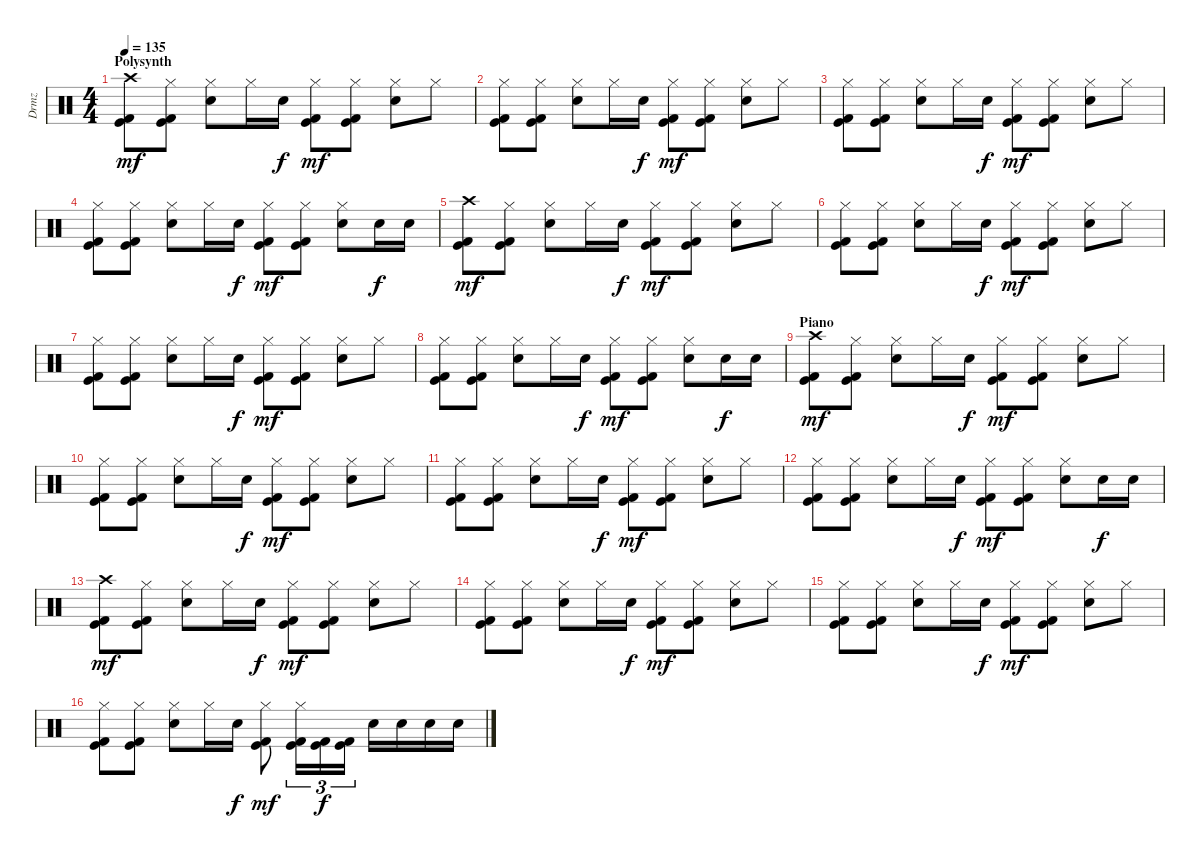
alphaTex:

\track ("Drmz" "Drmz") {instrument percussion}
\staff {score}
\articulation defaults
\ts (4 4)
\section ("" "Polysynth")
\tempo 135
\clef neutral
\ks c
("Kick (hit) 2" "Kick (hit)" "Crash high (hit)").8{dy mf} ("Kick (hit) 2" "Kick (hit)" "Hi-Hat (closed)").8 ("Snare (hit) 2" "Hi-Hat (closed)").8 "Hi-Hat (closed)".16 "Snare (hit) 2".16{dy f} ("Kick (hit)" "Kick (hit) 2" "Hi-Hat (closed)").8{dy mf} ("Kick (hit) 2" "Kick (hit)" "Hi-Hat (closed)").8 ("Snare (hit) 2" "Hi-Hat (closed)").8 "Hi-Hat (closed)".8 |
("Kick (hit) 2" "Kick (hit)" "Hi-Hat (closed)").8 ("Kick (hit) 2" "Kick (hit)" "Hi-Hat (closed)").8 ("Snare (hit) 2" "Hi-Hat (closed)").8 "Hi-Hat (closed)".16 "Snare (hit) 2".16{dy f} ("Kick (hit)" "Kick (hit) 2" "Hi-Hat (closed)").8{dy mf} ("Kick (hit) 2" "Kick (hit)" "Hi-Hat (closed)").8 ("Snare (hit) 2" "Hi-Hat (closed)").8 "Hi-Hat (closed)".8 |
("Kick (hit) 2" "Kick (hit)" "Hi-Hat (closed)").8 ("Kick (hit) 2" "Kick (hit)" "Hi-Hat (closed)").8 ("Snare (hit) 2" "Hi-Hat (closed)").8 "Hi-Hat (closed)".16 "Snare (hit) 2".16{dy f} ("Kick (hit)" "Kick (hit) 2" "Hi-Hat (closed)").8{dy mf} ("Kick (hit) 2" "Kick (hit)" "Hi-Hat (closed)").8 ("Snare (hit) 2" "Hi-Hat (closed)").8 "Hi-Hat (closed)".8 |
("Kick (hit) 2" "Kick (hit)" "Hi-Hat (closed)").8 ("Kick (hit) 2" "Kick (hit)" "Hi-Hat (closed)").8 ("Snare (hit) 2" "Hi-Hat (closed)").8 "Hi-Hat (closed)".16 "Snare (hit) 2".16{dy f} ("Kick (hit)" "Kick (hit) 2" "Hi-Hat (closed)").8{dy mf} ("Kick (hit) 2" "Kick (hit)" "Hi-Hat (closed)").8 ("Snare (hit) 2" "Hi-Hat (closed)").8 "Snare (hit) 2".16{dy f} "Snare (hit) 2".16 |
("Kick (hit) 2" "Kick (hit)" "Crash high (hit)").8{dy mf} ("Kick (hit) 2" "Kick (hit)" "Hi-Hat (closed)").8 ("Snare (hit) 2" "Hi-Hat (closed)").8 "Hi-Hat (closed)".16 "Snare (hit) 2".16{dy f} ("Kick (hit)" "Kick (hit) 2" "Hi-Hat (closed)").8{dy mf} ("Kick (hit) 2" "Kick (hit)" "Hi-Hat (closed)").8 ("Snare (hit) 2" "Hi-Hat (closed)").8 "Hi-Hat (closed)".8 |
("Kick (hit) 2" "Kick (hit)" "Hi-Hat (closed)").8 ("Kick (hit) 2" "Kick (hit)" "Hi-Hat (closed)").8 ("Snare (hit) 2" "Hi-Hat (closed)").8 "Hi-Hat (closed)".16 "Snare (hit) 2".16{dy f} ("Kick (hit)" "Kick (hit) 2" "Hi-Hat (closed)").8{dy mf} ("Kick (hit) 2" "Kick (hit)" "Hi-Hat (closed)").8 ("Snare (hit) 2" "Hi-Hat (closed)").8 "Hi-Hat (closed)".8 |
("Kick (hit) 2" "Kick (hit)" "Hi-Hat (closed)").8 ("Kick (hit) 2" "Kick (hit)" "Hi-Hat (closed)").8 ("Snare (hit) 2" "Hi-Hat (closed)").8 "Hi-Hat (closed)".16 "Snare (hit) 2".16{dy f} ("Kick (hit)" "Kick (hit) 2" "Hi-Hat (closed)").8{dy mf} ("Kick (hit) 2" "Kick (hit)" "Hi-Hat (closed)").8 ("Snare (hit) 2" "Hi-Hat (closed)").8 "Hi-Hat (closed)".8 |
("Kick (hit) 2" "Kick (hit)" "Hi-Hat (closed)").8 ("Kick (hit) 2" "Kick (hit)" "Hi-Hat (closed)").8 ("Snare (hit) 2" "Hi-Hat (closed)").8 "Hi-Hat (closed)".16 "Snare (hit) 2".16{dy f} ("Kick (hit)" "Kick (hit) 2" "Hi-Hat (closed)").8{dy mf} ("Kick (hit) 2" "Kick (hit)" "Hi-Hat (closed)").8 ("Snare (hit) 2" "Hi-Hat (closed)").8 "Snare (hit) 2".16{dy f} "Snare (hit) 2".16 |
\section ("" "Piano")
("Kick (hit) 2" "Kick (hit)" "Crash high (hit)").8{dy mf} ("Kick (hit) 2" "Kick (hit)" "Hi-Hat (closed)").8 ("Snare (hit) 2" "Hi-Hat (closed)").8 "Hi-Hat (closed)".16 "Snare (hit) 2".16{dy f} ("Kick (hit)" "Kick (hit) 2" "Hi-Hat (closed)").8{dy mf} ("Kick (hit) 2" "Kick (hit)" "Hi-Hat (closed)").8 ("Snare (hit) 2" "Hi-Hat (closed)").8 "Hi-Hat (closed)".8 |
("Kick (hit) 2" "Kick (hit)" "Hi-Hat (closed)").8 ("Kick (hit) 2" "Kick (hit)" "Hi-Hat (closed)").8 ("Snare (hit) 2" "Hi-Hat (closed)").8 "Hi-Hat (closed)".16 "Snare (hit) 2".16{dy f} ("Kick (hit)" "Kick (hit) 2" "Hi-Hat (closed)").8{dy mf} ("Kick (hit) 2" "Kick (hit)" "Hi-Hat (closed)").8 ("Snare (hit) 2" "Hi-Hat (closed)").8 "Hi-Hat (closed)".8 |
("Kick (hit) 2" "Kick (hit)" "Hi-Hat (closed)").8 ("Kick (hit) 2" "Kick (hit)" "Hi-Hat (closed)").8 ("Snare (hit) 2" "Hi-Hat (closed)").8 "Hi-Hat (closed)".16 "Snare (hit) 2".16{dy f} ("Kick (hit)" "Kick (hit) 2" "Hi-Hat (closed)").8{dy mf} ("Kick (hit) 2" "Kick (hit)" "Hi-Hat (closed)").8 ("Snare (hit) 2" "Hi-Hat (closed)").8 "Hi-Hat (closed)".8 |
("Kick (hit) 2" "Kick (hit)" "Hi-Hat (closed)").8 ("Kick (hit) 2" "Kick (hit)" "Hi-Hat (closed)").8 ("Snare (hit) 2" "Hi-Hat (closed)").8 "Hi-Hat (closed)".16 "Snare (hit) 2".16{dy f} ("Kick (hit)" "Kick (hit) 2" "Hi-Hat (closed)").8{dy mf} ("Kick (hit) 2" "Kick (hit)" "Hi-Hat (closed)").8 ("Snare (hit) 2" "Hi-Hat (closed)").8 "Snare (hit) 2".16{dy f} "Snare (hit) 2".16 |
("Kick (hit) 2" "Kick (hit)" "Crash high (hit)").8{dy mf} ("Kick (hit) 2" "Kick (hit)" "Hi-Hat (closed)").8 ("Snare (hit) 2" "Hi-Hat (closed)").8 "Hi-Hat (closed)".16 "Snare (hit) 2".16{dy f} ("Kick (hit)" "Kick (hit) 2" "Hi-Hat (closed)").8{dy mf} ("Kick (hit) 2" "Kick (hit)" "Hi-Hat (closed)").8 ("Snare (hit) 2" "Hi-Hat (closed)").8 "Hi-Hat (closed)".8 |
("Kick (hit) 2" "Kick (hit)" "Hi-Hat (closed)").8 ("Kick (hit) 2" "Kick (hit)" "Hi-Hat (closed)").8 ("Snare (hit) 2" "Hi-Hat (closed)").8 "Hi-Hat (closed)".16 "Snare (hit) 2".16{dy f} ("Kick (hit)" "Kick (hit) 2" "Hi-Hat (closed)").8{dy mf} ("Kick (hit) 2" "Kick (hit)" "Hi-Hat (closed)").8 ("Snare (hit) 2" "Hi-Hat (closed)").8 "Hi-Hat (closed)".8 |
("Kick (hit) 2" "Kick (hit)" "Hi-Hat (closed)").8 ("Kick (hit) 2" "Kick (hit)" "Hi-Hat (closed)").8 ("Snare (hit) 2" "Hi-Hat (closed)").8 "Hi-Hat (closed)".16 "Snare (hit) 2".16{dy f} ("Kick (hit)" "Kick (hit) 2" "Hi-Hat (closed)").8{dy mf} ("Kick (hit) 2" "Kick (hit)" "Hi-Hat (closed)").8 ("Snare (hit) 2" "Hi-Hat (closed)").8 "Hi-Hat (closed)".8 |
("Kick (hit) 2" "Kick (hit)" "Hi-Hat (closed)").8 ("Kick (hit) 2" "Kick (hit)" "Hi-Hat (closed)").8 ("Snare (hit) 2" "Hi-Hat (closed)").8 "Hi-Hat (closed)".16 "Snare (hit) 2".16{dy f} ("Kick (hit)" "Kick (hit) 2" "Hi-Hat (closed)").8{dy mf} ("Kick (hit) 2" "Kick (hit)" "Hi-Hat (closed)").16{tu (3 2)} ("Kick (hit) 2" "Kick (hit)").16{tu (3 2) dy f} ("Kick (hit) 2" "Kick (hit)").16{tu (3 2)} "Snare (hit) 2".16 "Snare (hit) 2".16 "Snare (hit) 2".16 "Snare (hit) 2".16
